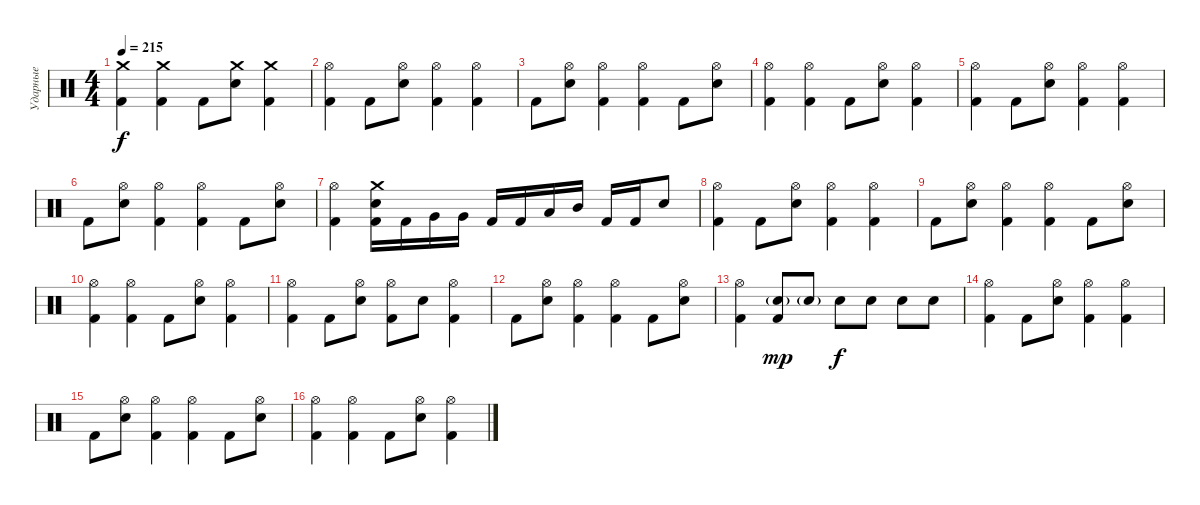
\track ("Ударные" "Ударные") {instrument percussion}
\staff {score}
\articulation defaults
\ts (4 4)
\tempo 215
\clef neutral
\ks c
("Crash medium (hit)" "Kick (hit) 2").4{dy f} ("Crash medium (hit)" "Kick (hit) 2").4 "Kick (hit) 2".8 ("Crash medium (hit)" "Snare (hit) 2").8 ("Crash medium (hit)" "Kick (hit) 2").4 |
("Hi-Hat (open)" "Kick (hit) 2").4 "Kick (hit) 2".8 ("Hi-Hat (open)" "Snare (hit) 2").8 ("Hi-Hat (open)" "Kick (hit) 2").4 ("Hi-Hat (open)" "Kick (hit) 2").4 |
"Kick (hit) 2".8 ("Hi-Hat (open)" "Snare (hit) 2").8 ("Hi-Hat (open)" "Kick (hit) 2").4 ("Hi-Hat (open)" "Kick (hit) 2").4 "Kick (hit) 2".8 ("Hi-Hat (open)" "Snare (hit) 2").8 |
("Hi-Hat (open)" "Kick (hit) 2").4 ("Hi-Hat (open)" "Kick (hit) 2").4 "Kick (hit) 2".8 ("Hi-Hat (open)" "Snare (hit) 2").8 ("Hi-Hat (open)" "Kick (hit) 2").4 |
("Hi-Hat (open)" "Kick (hit) 2").4 "Kick (hit) 2".8 ("Hi-Hat (open)" "Snare (hit) 2").8 ("Hi-Hat (open)" "Kick (hit) 2").4 ("Hi-Hat (open)" "Kick (hit) 2").4 |
"Kick (hit) 2".8 ("Hi-Hat (open)" "Snare (hit) 2").8 ("Hi-Hat (open)" "Kick (hit) 2").4 ("Hi-Hat (open)" "Kick (hit) 2").4 "Kick (hit) 2".8 ("Hi-Hat (open)" "Snare (hit) 2").8 |
("Hi-Hat (open)" "Kick (hit) 2").4 ("Crash medium (hit)" "Snare (hit) 2" "Kick (hit) 2").16 "Kick (hit) 2".16 "Very Low Tom (hit)".16 "Very Low Tom (hit)".16 "Kick (hit) 2".16 "Kick (hit) 2".16 "Low Tom (hit)".16 "Mid Tom (hit)".16 "Kick (hit) 2".16 "Kick (hit) 2".16 "Snare (hit) 2".8 |
("Hi-Hat (open)" "Kick (hit) 2").4 "Kick (hit) 2".8 ("Hi-Hat (open)" "Snare (hit) 2").8 ("Hi-Hat (open)" "Kick (hit) 2").4 ("Hi-Hat (open)" "Kick (hit) 2").4 |
"Kick (hit) 2".8 ("Hi-Hat (open)" "Snare (hit) 2").8 ("Hi-Hat (open)" "Kick (hit) 2").4 ("Hi-Hat (open)" "Kick (hit) 2").4 "Kick (hit) 2".8 ("Hi-Hat (open)" "Snare (hit) 2").8 |
("Hi-Hat (open)" "Kick (hit) 2").4 ("Hi-Hat (open)" "Kick (hit) 2").4 "Kick (hit) 2".8 ("Hi-Hat (open)" "Snare (hit) 2").8 ("Hi-Hat (open)" "Kick (hit) 2").4 |
("Hi-Hat (open)" "Kick (hit) 2").4 "Kick (hit) 2".8 ("Hi-Hat (open)" "Snare (hit) 2").8 ("Hi-Hat (open)" "Kick (hit) 2").8 "Snare (hit) 2".8 ("Hi-Hat (open)" "Kick (hit) 2").4 |
"Kick (hit) 2".8 ("Hi-Hat (open)" "Snare (hit) 2").8 ("Hi-Hat (open)" "Kick (hit) 2").4 ("Hi-Hat (open)" "Kick (hit) 2").4 "Kick (hit) 2".8 ("Hi-Hat (open)" "Snare (hit) 2").8 |
("Hi-Hat (open)" "Kick (hit) 2").4 ("Snare (hit) 2"{g} "Kick (hit) 2").8{dy mp} "Snare (hit) 2"{g}.8 "Snare (hit) 2".8{dy f} "Snare (hit) 2".8 "Snare (hit) 2".8 "Snare (hit) 2".8 |
("Hi-Hat (open)" "Kick (hit) 2").4 "Kick (hit) 2".8 ("Hi-Hat (open)" "Snare (hit) 2").8 ("Hi-Hat (open)" "Kick (hit) 2").4 ("Hi-Hat (open)" "Kick (hit) 2").4 |
"Kick (hit) 2".8 ("Hi-Hat (open)" "Snare (hit) 2").8 ("Hi-Hat (open)" "Kick (hit) 2").4 ("Hi-Hat (open)" "Kick (hit) 2").4 "Kick (hit) 2".8 ("Hi-Hat (open)" "Snare (hit) 2").8 |
("Hi-Hat (open)" "Kick (hit) 2").4 ("Hi-Hat (open)" "Kick (hit) 2").4 "Kick (hit) 2".8 ("Hi-Hat (open)" "Snare (hit) 2").8 ("Hi-Hat (open)" "Kick (hit) 2").4
